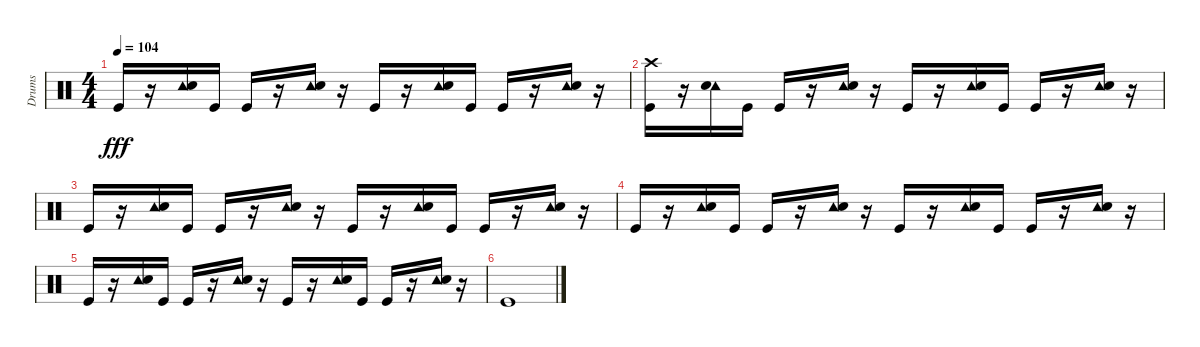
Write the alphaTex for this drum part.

\track ("Drums" "Drums") {instrument percussion}
\staff {score}
\articulation defaults
\ts (4 4)
\tempo 104
\clef neutral
\ks c "Kick (hit)".16{dy fff}
r.16 ("Tambourine (hit)" "Electric Snare (hit)").16 "Kick (hit)".16 "Kick (hit)".16 r.16 ("Tambourine (hit)" "Electric Snare (hit)").16 r.16 "Kick (hit)".16 r.16 ("Tambourine (hit)" "Electric Snare (hit)").16 "Kick (hit)".16 "Kick (hit)".16 r.16 ("Tambourine (hit)" "Electric Snare (hit)").16 r.16 |
("Kick (hit)" "Crash high (hit)").16 r.16 ("Tambourine (hit)" "Electric Snare (hit)").16 "Kick (hit)".16 "Kick (hit)".16 r.16 ("Tambourine (hit)" "Electric Snare (hit)").16 r.16 "Kick (hit)".16 r.16 ("Tambourine (hit)" "Electric Snare (hit)").16 "Kick (hit)".16 "Kick (hit)".16 r.16 ("Tambourine (hit)" "Electric Snare (hit)").16 r.16 |
"Kick (hit)".16 r.16 ("Tambourine (hit)" "Electric Snare (hit)").16 "Kick (hit)".16 "Kick (hit)".16 r.16 ("Tambourine (hit)" "Electric Snare (hit)").16 r.16 "Kick (hit)".16 r.16 ("Tambourine (hit)" "Electric Snare (hit)").16 "Kick (hit)".16 "Kick (hit)".16 r.16 ("Tambourine (hit)" "Electric Snare (hit)").16 r.16 |
"Kick (hit)".16 r.16 ("Tambourine (hit)" "Electric Snare (hit)").16 "Kick (hit)".16 "Kick (hit)".16 r.16 ("Tambourine (hit)" "Electric Snare (hit)").16 r.16 "Kick (hit)".16 r.16 ("Tambourine (hit)" "Electric Snare (hit)").16 "Kick (hit)".16 "Kick (hit)".16 r.16 ("Tambourine (hit)" "Electric Snare (hit)").16 r.16 |
"Kick (hit)".16 r.16 ("Tambourine (hit)" "Electric Snare (hit)").16 "Kick (hit)".16 "Kick (hit)".16 r.16 ("Tambourine (hit)" "Electric Snare (hit)").16 r.16 "Kick (hit)".16 r.16 ("Tambourine (hit)" "Electric Snare (hit)").16 "Kick (hit)".16 "Kick (hit)".16 r.16 ("Tambourine (hit)" "Electric Snare (hit)").16{volume 8} r.16 |
"Kick (hit)".1{volume 8}
